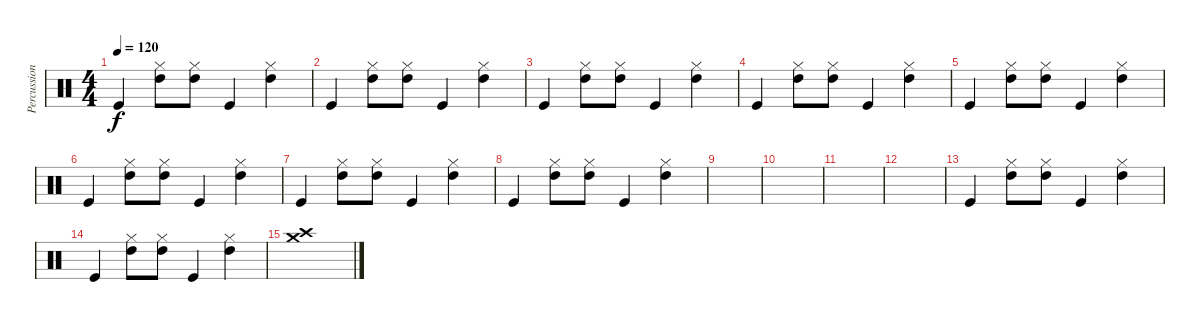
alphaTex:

\track ("Percussion" "Percussion") {instrument percussion}
\staff {score}
\articulation defaults
\ts (4 4)
\tempo 120
\clef neutral
\ks c "Kick (hit)".4{dy f}
("Hi-Hat (closed)" "High Tom (hit)").8 ("Hi-Hat (closed)" "High Tom (hit)").8 "Kick (hit)".4 ("Hi-Hat (closed)" "High Tom (hit)").4 |
"Kick (hit)".4 ("Hi-Hat (closed)" "High Tom (hit)").8 ("Hi-Hat (closed)" "High Tom (hit)").8 "Kick (hit)".4 ("Hi-Hat (closed)" "High Tom (hit)").4 |
"Kick (hit)".4 ("Hi-Hat (closed)" "High Tom (hit)").8 ("Hi-Hat (closed)" "High Tom (hit)").8 "Kick (hit)".4 ("Hi-Hat (closed)" "High Tom (hit)").4 |
"Kick (hit)".4 ("Hi-Hat (closed)" "High Tom (hit)").8 ("Hi-Hat (closed)" "High Tom (hit)").8 "Kick (hit)".4 ("Hi-Hat (closed)" "High Tom (hit)").4 |
"Kick (hit)".4 ("Hi-Hat (closed)" "High Tom (hit)").8 ("Hi-Hat (closed)" "High Tom (hit)").8 "Kick (hit)".4 ("Hi-Hat (closed)" "High Tom (hit)").4 |
"Kick (hit)".4 ("Hi-Hat (closed)" "High Tom (hit)").8 ("Hi-Hat (closed)" "High Tom (hit)").8 "Kick (hit)".4 ("Hi-Hat (closed)" "High Tom (hit)").4 |
"Kick (hit)".4 ("Hi-Hat (closed)" "High Tom (hit)").8 ("Hi-Hat (closed)" "High Tom (hit)").8 "Kick (hit)".4 ("Hi-Hat (closed)" "High Tom (hit)").4 |
"Kick (hit)".4 ("Hi-Hat (closed)" "High Tom (hit)").8 ("Hi-Hat (closed)" "High Tom (hit)").8 "Kick (hit)".4 ("Hi-Hat (closed)" "High Tom (hit)").4 |
|
|
|
|
"Kick (hit)".4 ("Hi-Hat (closed)" "High Tom (hit)").8 ("Hi-Hat (closed)" "High Tom (hit)").8 "Kick (hit)".4 ("Hi-Hat (closed)" "High Tom (hit)").4 |
"Kick (hit)".4 ("Hi-Hat (closed)" "High Tom (hit)").8 ("Hi-Hat (closed)" "High Tom (hit)").8 "Kick (hit)".4 ("Hi-Hat (closed)" "High Tom (hit)").4 |
("Crash high (hit)" "Crash medium (hit)").1
